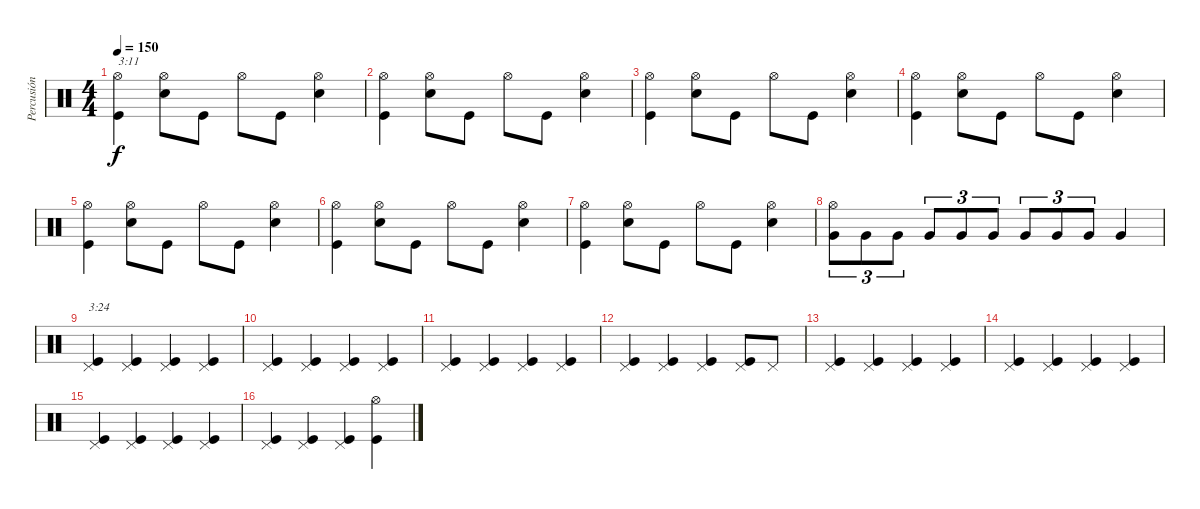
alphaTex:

\track ("Percusión" "Percusión") {instrument percussion}
\staff {score}
\articulation defaults
\ts (4 4)
\tempo 150
\clef neutral
\ks c
("Kick (hit)" "Hi-Hat (open)").4{txt "3:11" dy f} ("Snare (hit) 2" "Hi-Hat (open)").8 "Kick (hit)".8 "Hi-Hat (open)".8 "Kick (hit)".8 ("Snare (hit) 2" "Hi-Hat (open)").4 |
("Kick (hit)" "Hi-Hat (open)").4 ("Snare (hit) 2" "Hi-Hat (open)").8 "Kick (hit)".8 "Hi-Hat (open)".8 "Kick (hit)".8 ("Snare (hit) 2" "Hi-Hat (open)").4 |
("Kick (hit)" "Hi-Hat (open)").4 ("Snare (hit) 2" "Hi-Hat (open)").8 "Kick (hit)".8 "Hi-Hat (open)".8 "Kick (hit)".8 ("Snare (hit) 2" "Hi-Hat (open)").4 |
("Kick (hit)" "Hi-Hat (open)").4 ("Snare (hit) 2" "Hi-Hat (open)").8 "Kick (hit)".8 "Hi-Hat (open)".8 "Kick (hit)".8 ("Snare (hit) 2" "Hi-Hat (open)").4 |
("Kick (hit)" "Hi-Hat (open)").4 ("Snare (hit) 2" "Hi-Hat (open)").8 "Kick (hit)".8 "Hi-Hat (open)".8 "Kick (hit)".8 ("Snare (hit) 2" "Hi-Hat (open)").4 |
("Kick (hit)" "Hi-Hat (open)").4 ("Snare (hit) 2" "Hi-Hat (open)").8 "Kick (hit)".8 "Hi-Hat (open)".8 "Kick (hit)".8 ("Snare (hit) 2" "Hi-Hat (open)").4 |
("Kick (hit)" "Hi-Hat (open)").4 ("Snare (hit) 2" "Hi-Hat (open)").8 "Kick (hit)".8 "Hi-Hat (open)".8 "Kick (hit)".8 ("Snare (hit) 2" "Hi-Hat (open)").4 |
("Very Low Tom (hit)" "Hi-Hat (open)").8{tu (3 2)} "Very Low Tom (hit)".8{tu (3 2)} "Very Low Tom (hit)".8{tu (3 2)} "Very Low Tom (hit)".8{tu (3 2)} "Very Low Tom (hit)".8{tu (3 2)} "Very Low Tom (hit)".8{tu (3 2)} "Very Low Tom (hit)".8{tu (3 2)} "Very Low Tom (hit)".8{tu (3 2)} "Very Low Tom (hit)".8{tu (3 2)} "Very Low Tom (hit)".4 |
("Kick (hit)" "Pedal Hi-Hat (hit)").4{txt "3:24"} ("Kick (hit)" "Pedal Hi-Hat (hit)").4 ("Kick (hit)" "Pedal Hi-Hat (hit)").4 ("Kick (hit)" "Pedal Hi-Hat (hit)").4 |
("Kick (hit)" "Pedal Hi-Hat (hit)").4 ("Kick (hit)" "Pedal Hi-Hat (hit)").4 ("Kick (hit)" "Pedal Hi-Hat (hit)").4 ("Kick (hit)" "Pedal Hi-Hat (hit)").4 |
("Kick (hit)" "Pedal Hi-Hat (hit)").4 ("Kick (hit)" "Pedal Hi-Hat (hit)").4 ("Kick (hit)" "Pedal Hi-Hat (hit)").4 ("Kick (hit)" "Pedal Hi-Hat (hit)").4 |
("Kick (hit)" "Pedal Hi-Hat (hit)").4 ("Kick (hit)" "Pedal Hi-Hat (hit)").4 ("Kick (hit)" "Pedal Hi-Hat (hit)").4 ("Kick (hit)" "Pedal Hi-Hat (hit)").8 "Pedal Hi-Hat (hit)".8 |
("Kick (hit)" "Pedal Hi-Hat (hit)").4 ("Kick (hit)" "Pedal Hi-Hat (hit)").4 ("Kick (hit)" "Pedal Hi-Hat (hit)").4 ("Kick (hit)" "Pedal Hi-Hat (hit)").4 |
("Kick (hit)" "Pedal Hi-Hat (hit)").4 ("Kick (hit)" "Pedal Hi-Hat (hit)").4 ("Kick (hit)" "Pedal Hi-Hat (hit)").4 ("Kick (hit)" "Pedal Hi-Hat (hit)").4 |
("Kick (hit)" "Pedal Hi-Hat (hit)").4 ("Kick (hit)" "Pedal Hi-Hat (hit)").4 ("Kick (hit)" "Pedal Hi-Hat (hit)").4 ("Kick (hit)" "Pedal Hi-Hat (hit)").4 |
("Kick (hit)" "Pedal Hi-Hat (hit)").4 ("Kick (hit)" "Pedal Hi-Hat (hit)").4 ("Kick (hit)" "Pedal Hi-Hat (hit)").4 ("Kick (hit)" "Hi-Hat (open)").4
